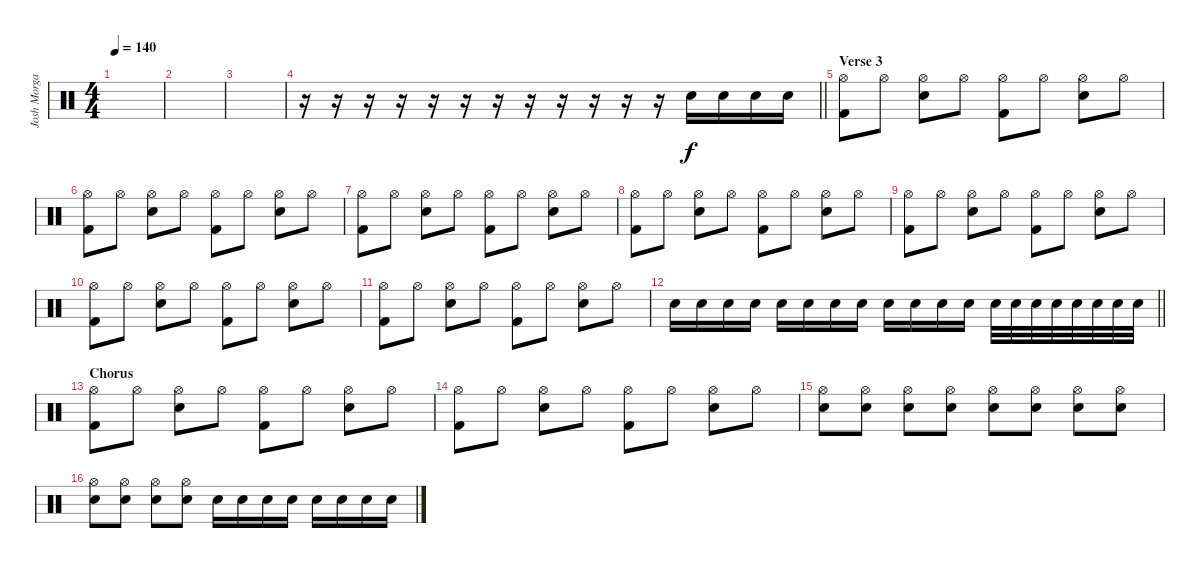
\track ("Josh Morgan" "Josh Morga") {instrument percussion}
\staff {score}
\articulation defaults
\ts (4 4)
\tempo 140
\clef neutral
\ks c
|
|
|
\barLineRight lightlight
r.16 r.16 r.16 r.16 r.16 r.16 r.16 r.16 r.16 r.16 r.16 r.16 "Electric Snare (hit)".16 "Electric Snare (hit)".16 "Electric Snare (hit)".16 "Electric Snare (hit)".16 |
\section ("" "Verse 3")
("Hi-Hat (open)" "Kick (hit) 2").8 "Hi-Hat (open)".8 ("Hi-Hat (open)" "Electric Snare (hit)").8 "Hi-Hat (open)".8 ("Hi-Hat (open)" "Kick (hit) 2").8 "Hi-Hat (open)".8 ("Hi-Hat (open)" "Electric Snare (hit)").8 "Hi-Hat (open)".8 |
("Hi-Hat (open)" "Kick (hit) 2").8 "Hi-Hat (open)".8 ("Hi-Hat (open)" "Electric Snare (hit)").8 "Hi-Hat (open)".8 ("Hi-Hat (open)" "Kick (hit) 2").8 "Hi-Hat (open)".8 ("Hi-Hat (open)" "Electric Snare (hit)").8 "Hi-Hat (open)".8 |
("Hi-Hat (open)" "Kick (hit) 2").8 "Hi-Hat (open)".8 ("Hi-Hat (open)" "Electric Snare (hit)").8 "Hi-Hat (open)".8 ("Hi-Hat (open)" "Kick (hit) 2").8 "Hi-Hat (open)".8 ("Hi-Hat (open)" "Electric Snare (hit)").8 "Hi-Hat (open)".8 |
("Hi-Hat (open)" "Kick (hit) 2").8 "Hi-Hat (open)".8 ("Hi-Hat (open)" "Electric Snare (hit)").8 "Hi-Hat (open)".8 ("Hi-Hat (open)" "Kick (hit) 2").8 "Hi-Hat (open)".8 ("Hi-Hat (open)" "Electric Snare (hit)").8 "Hi-Hat (open)".8 |
("Hi-Hat (open)" "Kick (hit) 2").8 "Hi-Hat (open)".8 ("Hi-Hat (open)" "Electric Snare (hit)").8 "Hi-Hat (open)".8 ("Hi-Hat (open)" "Kick (hit) 2").8 "Hi-Hat (open)".8 ("Hi-Hat (open)" "Electric Snare (hit)").8 "Hi-Hat (open)".8 |
("Hi-Hat (open)" "Kick (hit) 2").8 "Hi-Hat (open)".8 ("Hi-Hat (open)" "Electric Snare (hit)").8 "Hi-Hat (open)".8 ("Hi-Hat (open)" "Kick (hit) 2").8 "Hi-Hat (open)".8 ("Hi-Hat (open)" "Electric Snare (hit)").8 "Hi-Hat (open)".8 |
("Hi-Hat (open)" "Kick (hit) 2").8 "Hi-Hat (open)".8 ("Hi-Hat (open)" "Electric Snare (hit)").8 "Hi-Hat (open)".8 ("Hi-Hat (open)" "Kick (hit) 2").8 "Hi-Hat (open)".8 ("Hi-Hat (open)" "Electric Snare (hit)").8 "Hi-Hat (open)".8 |
\barLineRight lightlight "Electric Snare (hit)".16 "Electric Snare (hit)".16 "Electric Snare (hit)".16 "Electric Snare (hit)".16 "Electric Snare (hit)".16 "Electric Snare (hit)".16 "Electric Snare (hit)".16 "Electric Snare (hit)".16 "Electric Snare (hit)".16 "Electric Snare (hit)".16 "Electric Snare (hit)".16 "Electric Snare (hit)".16 "Electric Snare (hit)".32 "Electric Snare (hit)".32 "Electric Snare (hit)".32 "Electric Snare (hit)".32 "Electric Snare (hit)".32 "Electric Snare (hit)".32 "Electric Snare (hit)".32 "Electric Snare (hit)".32
|
\section ("" "Chorus")
("Hi-Hat (open)" "Kick (hit) 2").8 "Hi-Hat (open)".8 ("Hi-Hat (open)" "Electric Snare (hit)").8 "Hi-Hat (open)".8 ("Hi-Hat (open)" "Kick (hit) 2").8 "Hi-Hat (open)".8 ("Hi-Hat (open)" "Electric Snare (hit)").8 "Hi-Hat (open)".8 |
("Hi-Hat (open)" "Kick (hit) 2").8 "Hi-Hat (open)".8 ("Hi-Hat (open)" "Electric Snare (hit)").8 "Hi-Hat (open)".8 ("Hi-Hat (open)" "Kick (hit) 2").8 "Hi-Hat (open)".8 ("Hi-Hat (open)" "Electric Snare (hit)").8 "Hi-Hat (open)".8 |
("Hi-Hat (open)" "Electric Snare (hit)").8 ("Hi-Hat (open)" "Electric Snare (hit)").8 ("Hi-Hat (open)" "Electric Snare (hit)").8 ("Hi-Hat (open)" "Electric Snare (hit)").8 ("Hi-Hat (open)" "Electric Snare (hit)").8 ("Hi-Hat (open)" "Electric Snare (hit)").8 ("Hi-Hat (open)" "Electric Snare (hit)").8 ("Hi-Hat (open)" "Electric Snare (hit)").8 |
("Hi-Hat (open)" "Electric Snare (hit)").8 ("Hi-Hat (open)" "Electric Snare (hit)").8 ("Hi-Hat (open)" "Electric Snare (hit)").8 ("Hi-Hat (open)" "Electric Snare (hit)").8 "Electric Snare (hit)".16 "Electric Snare (hit)".16 "Electric Snare (hit)".16 "Electric Snare (hit)".16 "Electric Snare (hit)".16 "Electric Snare (hit)".16 "Electric Snare (hit)".16 "Electric Snare (hit)".16
